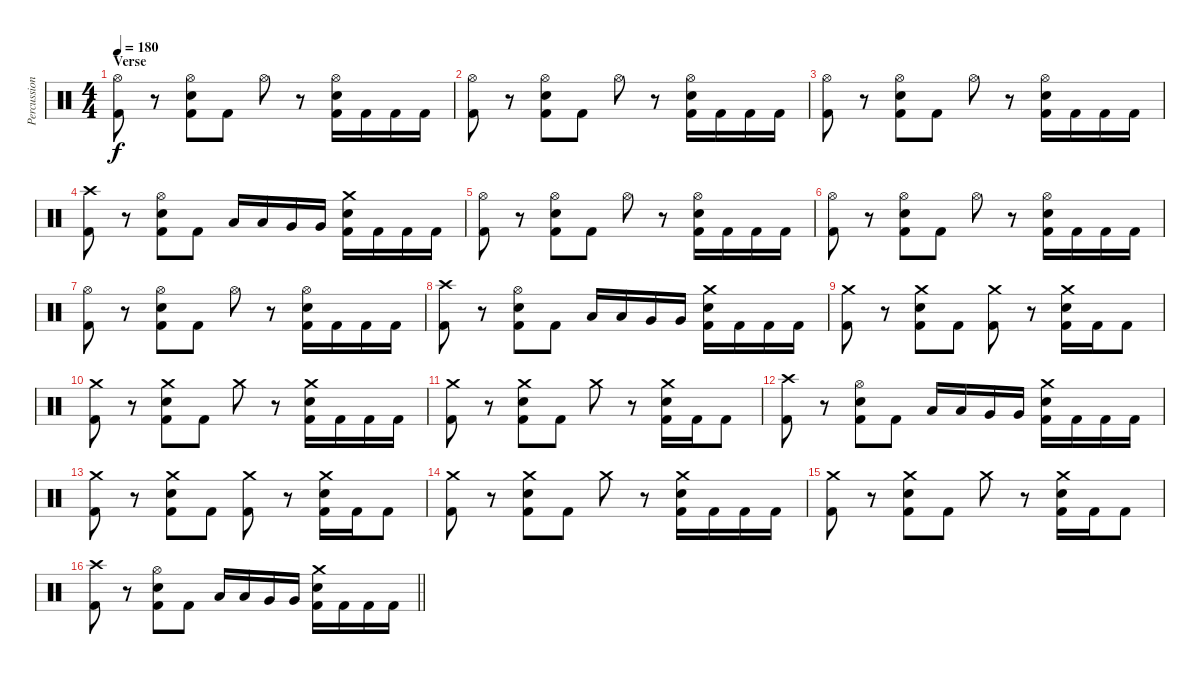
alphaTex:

\track ("Percussion" "Percussion") {instrument percussion}
\staff {score}
\articulation defaults
\ts (4 4)
\section ("" "Verse")
\tempo 180
\clef neutral
\ks c
("Hi-Hat (open)" "Kick (hit) 2").8{dy f} r.8 ("Hi-Hat (open)" "Electric Snare (hit)" "Kick (hit) 2").8 "Kick (hit) 2".8 "Hi-Hat (open)".8 r.8 ("Hi-Hat (open)" "Electric Snare (hit)" "Kick (hit) 2").16 "Kick (hit) 2".16 "Kick (hit) 2".16 "Kick (hit) 2".16 |
("Hi-Hat (open)" "Kick (hit) 2").8 r.8 ("Hi-Hat (open)" "Electric Snare (hit)" "Kick (hit) 2").8 "Kick (hit) 2".8 "Hi-Hat (open)".8 r.8 ("Hi-Hat (open)" "Electric Snare (hit)" "Kick (hit) 2").16 "Kick (hit) 2".16 "Kick (hit) 2".16 "Kick (hit) 2".16 |
("Hi-Hat (open)" "Kick (hit) 2").8 r.8 ("Hi-Hat (open)" "Electric Snare (hit)" "Kick (hit) 2").8 "Kick (hit) 2".8 "Hi-Hat (open)".8 r.8 ("Hi-Hat (open)" "Electric Snare (hit)" "Kick (hit) 2").16 "Kick (hit) 2".16 "Kick (hit) 2".16 "Kick (hit) 2".16 |
("Crash high (hit)" "Kick (hit) 2").8 r.8 ("Hi-Hat (open)" "Electric Snare (hit)" "Kick (hit) 2").8 "Kick (hit) 2".8 "Low Tom (hit)".16 "Low Tom (hit)".16 "Very Low Tom (hit)".16 "Very Low Tom (hit)".16 ("Crash medium (hit)" "Electric Snare (hit)" "Kick (hit) 2").16 "Kick (hit) 2".16 "Kick (hit) 2".16 "Kick (hit) 2".16 |
("Hi-Hat (open)" "Kick (hit) 2").8 r.8 ("Hi-Hat (open)" "Electric Snare (hit)" "Kick (hit) 2").8 "Kick (hit) 2".8 "Hi-Hat (open)".8 r.8 ("Hi-Hat (open)" "Electric Snare (hit)" "Kick (hit) 2").16 "Kick (hit) 2".16 "Kick (hit) 2".16 "Kick (hit) 2".16 |
("Hi-Hat (open)" "Kick (hit) 2").8 r.8 ("Hi-Hat (open)" "Electric Snare (hit)" "Kick (hit) 2").8 "Kick (hit) 2".8 "Hi-Hat (open)".8 r.8 ("Hi-Hat (open)" "Electric Snare (hit)" "Kick (hit) 2").16 "Kick (hit) 2".16 "Kick (hit) 2".16 "Kick (hit) 2".16 |
("Hi-Hat (open)" "Kick (hit) 2").8 r.8 ("Hi-Hat (open)" "Electric Snare (hit)" "Kick (hit) 2").8 "Kick (hit) 2".8 "Hi-Hat (open)".8 r.8 ("Hi-Hat (open)" "Electric Snare (hit)" "Kick (hit) 2").16 "Kick (hit) 2".16 "Kick (hit) 2".16 "Kick (hit) 2".16 |
("Crash high (hit)" "Kick (hit) 2").8 r.8 ("Hi-Hat (open)" "Electric Snare (hit)" "Kick (hit) 2").8 "Kick (hit) 2".8 "Low Tom (hit)".16 "Low Tom (hit)".16 "Very Low Tom (hit)".16 "Very Low Tom (hit)".16 ("Crash medium (hit)" "Electric Snare (hit)" "Kick (hit) 2").16 "Kick (hit) 2".16 "Kick (hit) 2".16 "Kick (hit) 2".16 |
("Crash medium (hit)" "Kick (hit) 2").8 r.8 ("Crash medium (hit)" "Electric Snare (hit)" "Kick (hit) 2").8 "Kick (hit) 2".8 ("Crash medium (hit)" "Kick (hit) 2").8 r.8 ("Crash medium (hit)" "Electric Snare (hit)" "Kick (hit) 2").16 "Kick (hit) 2".16 "Kick (hit) 2".8 |
("Crash medium (hit)" "Kick (hit) 2").8 r.8 ("Crash medium (hit)" "Electric Snare (hit)" "Kick (hit) 2").8 "Kick (hit) 2".8 "Crash medium (hit)".8 r.8 ("Crash medium (hit)" "Electric Snare (hit)" "Kick (hit) 2").16 "Kick (hit) 2".16 "Kick (hit) 2".16 "Kick (hit) 2".16 |
("Crash medium (hit)" "Kick (hit) 2").8 r.8 ("Crash medium (hit)" "Electric Snare (hit)" "Kick (hit) 2").8 "Kick (hit) 2".8 "Crash medium (hit)".8 r.8 ("Crash medium (hit)" "Electric Snare (hit)" "Kick (hit) 2").16 "Kick (hit) 2".16 "Kick (hit) 2".8 |
("Crash high (hit)" "Kick (hit) 2").8 r.8 ("Hi-Hat (open)" "Electric Snare (hit)" "Kick (hit) 2").8 "Kick (hit) 2".8 "Low Tom (hit)".16 "Low Tom (hit)".16 "Very Low Tom (hit)".16 "Very Low Tom (hit)".16 ("Crash medium (hit)" "Electric Snare (hit)" "Kick (hit) 2").16 "Kick (hit) 2".16 "Kick (hit) 2".16 "Kick (hit) 2".16 |
("Crash medium (hit)" "Kick (hit) 2").8 r.8 ("Crash medium (hit)" "Electric Snare (hit)" "Kick (hit) 2").8 "Kick (hit) 2".8 ("Crash medium (hit)" "Kick (hit) 2").8 r.8 ("Crash medium (hit)" "Electric Snare (hit)" "Kick (hit) 2").16 "Kick (hit) 2".16 "Kick (hit) 2".8 |
("Crash medium (hit)" "Kick (hit) 2").8 r.8 ("Crash medium (hit)" "Electric Snare (hit)" "Kick (hit) 2").8 "Kick (hit) 2".8 "Crash medium (hit)".8 r.8 ("Crash medium (hit)" "Electric Snare (hit)" "Kick (hit) 2").16 "Kick (hit) 2".16 "Kick (hit) 2".16 "Kick (hit) 2".16 |
("Crash medium (hit)" "Kick (hit) 2").8 r.8 ("Crash medium (hit)" "Electric Snare (hit)" "Kick (hit) 2").8 "Kick (hit) 2".8 "Crash medium (hit)".8 r.8 ("Crash medium (hit)" "Electric Snare (hit)" "Kick (hit) 2").16 "Kick (hit) 2".16 "Kick (hit) 2".8 |
\barLineRight lightlight
("Crash high (hit)" "Kick (hit) 2").8 r.8 ("Hi-Hat (open)" "Electric Snare (hit)" "Kick (hit) 2").8 "Kick (hit) 2".8 "Low Tom (hit)".16 "Low Tom (hit)".16 "Very Low Tom (hit)".16 "Very Low Tom (hit)".16 ("Crash medium (hit)" "Electric Snare (hit)" "Kick (hit) 2").16 "Kick (hit) 2".16 "Kick (hit) 2".16 "Kick (hit) 2".16
